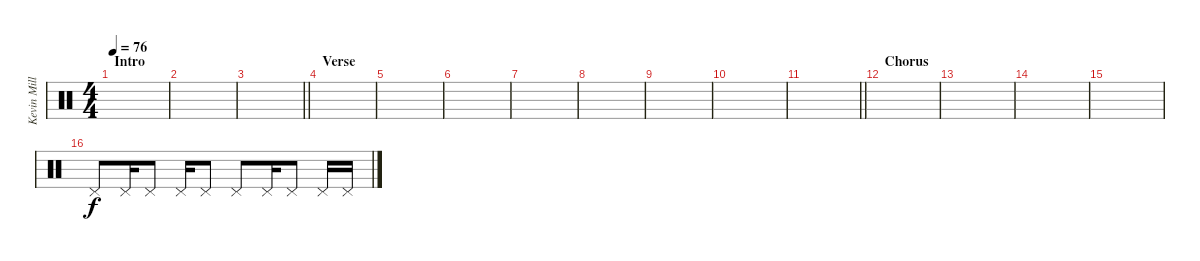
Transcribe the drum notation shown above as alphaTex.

\track ("Kevin Miller (Drums)" "Kevin Mill") {instrument percussion}
\staff {score}
\articulation defaults
\ts (4 4)
\section ("" "Intro")
\tempo 76
\clef neutral
\ks c
|
|
\barLineRight lightlight
|
\section ("" "Verse")
|
|
|
|
|
|
|
\barLineRight lightlight
|
\section ("" "Chorus")
|
|
|
|
"Pedal Hi-Hat (hit)".8 "Pedal Hi-Hat (hit)".16 "Pedal Hi-Hat (hit)".8 "Pedal Hi-Hat (hit)".16 "Pedal Hi-Hat (hit)".8 "Pedal Hi-Hat (hit)".8 "Pedal Hi-Hat (hit)".16 "Pedal Hi-Hat (hit)".8 "Pedal Hi-Hat (hit)".16 "Pedal Hi-Hat (hit)".16
